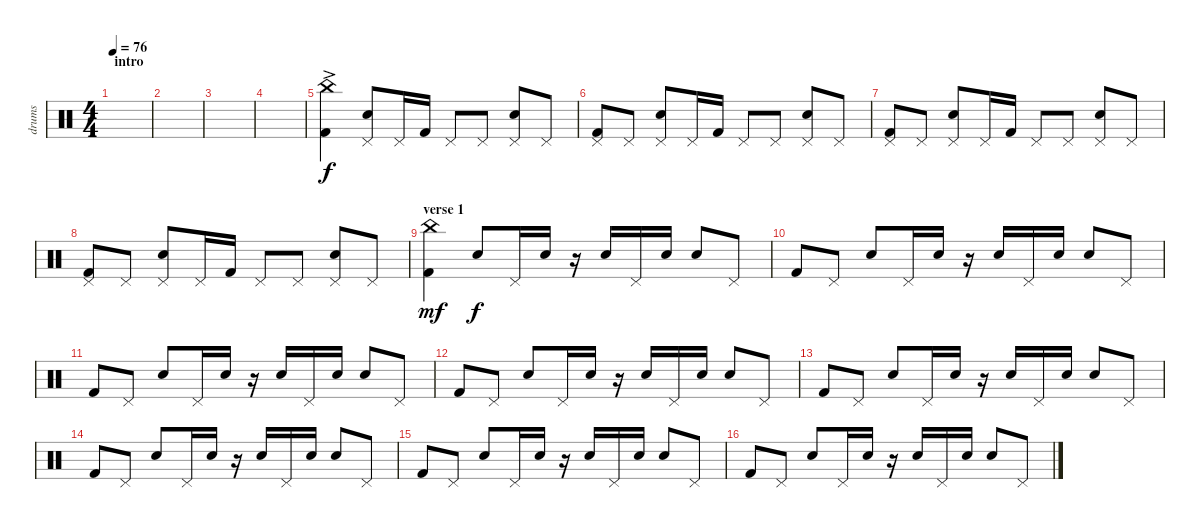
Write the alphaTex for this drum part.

\track ("drums" "drums") {instrument percussion}
\staff {score}
\articulation defaults
\ts (4 4)
\section ("" "intro")
\tempo 76
\clef neutral
\ks c
|
|
|
|
("China (hit)"{ac} "Kick (hit) 2"{ac}).4 ("Pedal Hi-Hat (hit)" "Snare (hit) 2").8{dy f} "Pedal Hi-Hat (hit)".16 "Kick (hit) 2".16 "Pedal Hi-Hat (hit)".8 "Pedal Hi-Hat (hit)".8 ("Pedal Hi-Hat (hit)" "Snare (hit) 2").8 "Pedal Hi-Hat (hit)".8 |
("Pedal Hi-Hat (hit)" "Kick (hit) 2").8 "Pedal Hi-Hat (hit)".8 ("Pedal Hi-Hat (hit)" "Snare (hit) 2").8 "Pedal Hi-Hat (hit)".16 "Kick (hit) 2".16 "Pedal Hi-Hat (hit)".8 "Pedal Hi-Hat (hit)".8 ("Pedal Hi-Hat (hit)" "Snare (hit) 2").8 "Pedal Hi-Hat (hit)".8 |
("Pedal Hi-Hat (hit)" "Kick (hit) 2").8 "Pedal Hi-Hat (hit)".8 ("Pedal Hi-Hat (hit)" "Snare (hit) 2").8 "Pedal Hi-Hat (hit)".16 "Kick (hit) 2".16 "Pedal Hi-Hat (hit)".8 "Pedal Hi-Hat (hit)".8 ("Pedal Hi-Hat (hit)" "Snare (hit) 2").8 "Pedal Hi-Hat (hit)".8 |
("Pedal Hi-Hat (hit)" "Kick (hit) 2").8 "Pedal Hi-Hat (hit)".8 ("Pedal Hi-Hat (hit)" "Snare (hit) 2").8 "Pedal Hi-Hat (hit)".16 "Kick (hit) 2".16 "Pedal Hi-Hat (hit)".8 "Pedal Hi-Hat (hit)".8 ("Pedal Hi-Hat (hit)" "Snare (hit) 2").8 "Pedal Hi-Hat (hit)".8 |
\section ("" "verse 1")
("China (hit)" "Kick (hit) 2").4{dy mf} "Snare (hit) 2".8{dy f} "Pedal Hi-Hat (hit)".16 "Snare (hit) 2".16 r.16 "Snare (hit) 2".16 "Pedal Hi-Hat (hit)".16 "Snare (hit) 2".16 "Snare (hit) 2".8 "Pedal Hi-Hat (hit)".8 |
"Kick (hit) 2".8 "Pedal Hi-Hat (hit)".8 "Snare (hit) 2".8 "Pedal Hi-Hat (hit)".16 "Snare (hit) 2".16 r.16 "Snare (hit) 2".16 "Pedal Hi-Hat (hit)".16 "Snare (hit) 2".16 "Snare (hit) 2".8 "Pedal Hi-Hat (hit)".8 |
"Kick (hit) 2".8 "Pedal Hi-Hat (hit)".8 "Snare (hit) 2".8 "Pedal Hi-Hat (hit)".16 "Snare (hit) 2".16 r.16 "Snare (hit) 2".16 "Pedal Hi-Hat (hit)".16 "Snare (hit) 2".16 "Snare (hit) 2".8 "Pedal Hi-Hat (hit)".8 |
"Kick (hit) 2".8 "Pedal Hi-Hat (hit)".8 "Snare (hit) 2".8 "Pedal Hi-Hat (hit)".16 "Snare (hit) 2".16 r.16 "Snare (hit) 2".16 "Pedal Hi-Hat (hit)".16 "Snare (hit) 2".16 "Snare (hit) 2".8 "Pedal Hi-Hat (hit)".8 |
"Kick (hit) 2".8 "Pedal Hi-Hat (hit)".8 "Snare (hit) 2".8 "Pedal Hi-Hat (hit)".16 "Snare (hit) 2".16 r.16 "Snare (hit) 2".16 "Pedal Hi-Hat (hit)".16 "Snare (hit) 2".16 "Snare (hit) 2".8 "Pedal Hi-Hat (hit)".8 |
"Kick (hit) 2".8 "Pedal Hi-Hat (hit)".8 "Snare (hit) 2".8 "Pedal Hi-Hat (hit)".16 "Snare (hit) 2".16 r.16 "Snare (hit) 2".16 "Pedal Hi-Hat (hit)".16 "Snare (hit) 2".16 "Snare (hit) 2".8 "Pedal Hi-Hat (hit)".8 |
"Kick (hit) 2".8 "Pedal Hi-Hat (hit)".8 "Snare (hit) 2".8 "Pedal Hi-Hat (hit)".16 "Snare (hit) 2".16 r.16 "Snare (hit) 2".16 "Pedal Hi-Hat (hit)".16 "Snare (hit) 2".16 "Snare (hit) 2".8 "Pedal Hi-Hat (hit)".8 |
"Kick (hit) 2".8 "Pedal Hi-Hat (hit)".8 "Snare (hit) 2".8 "Pedal Hi-Hat (hit)".16 "Snare (hit) 2".16 r.16 "Snare (hit) 2".16 "Pedal Hi-Hat (hit)".16 "Snare (hit) 2".16 "Snare (hit) 2".8 "Pedal Hi-Hat (hit)".8
